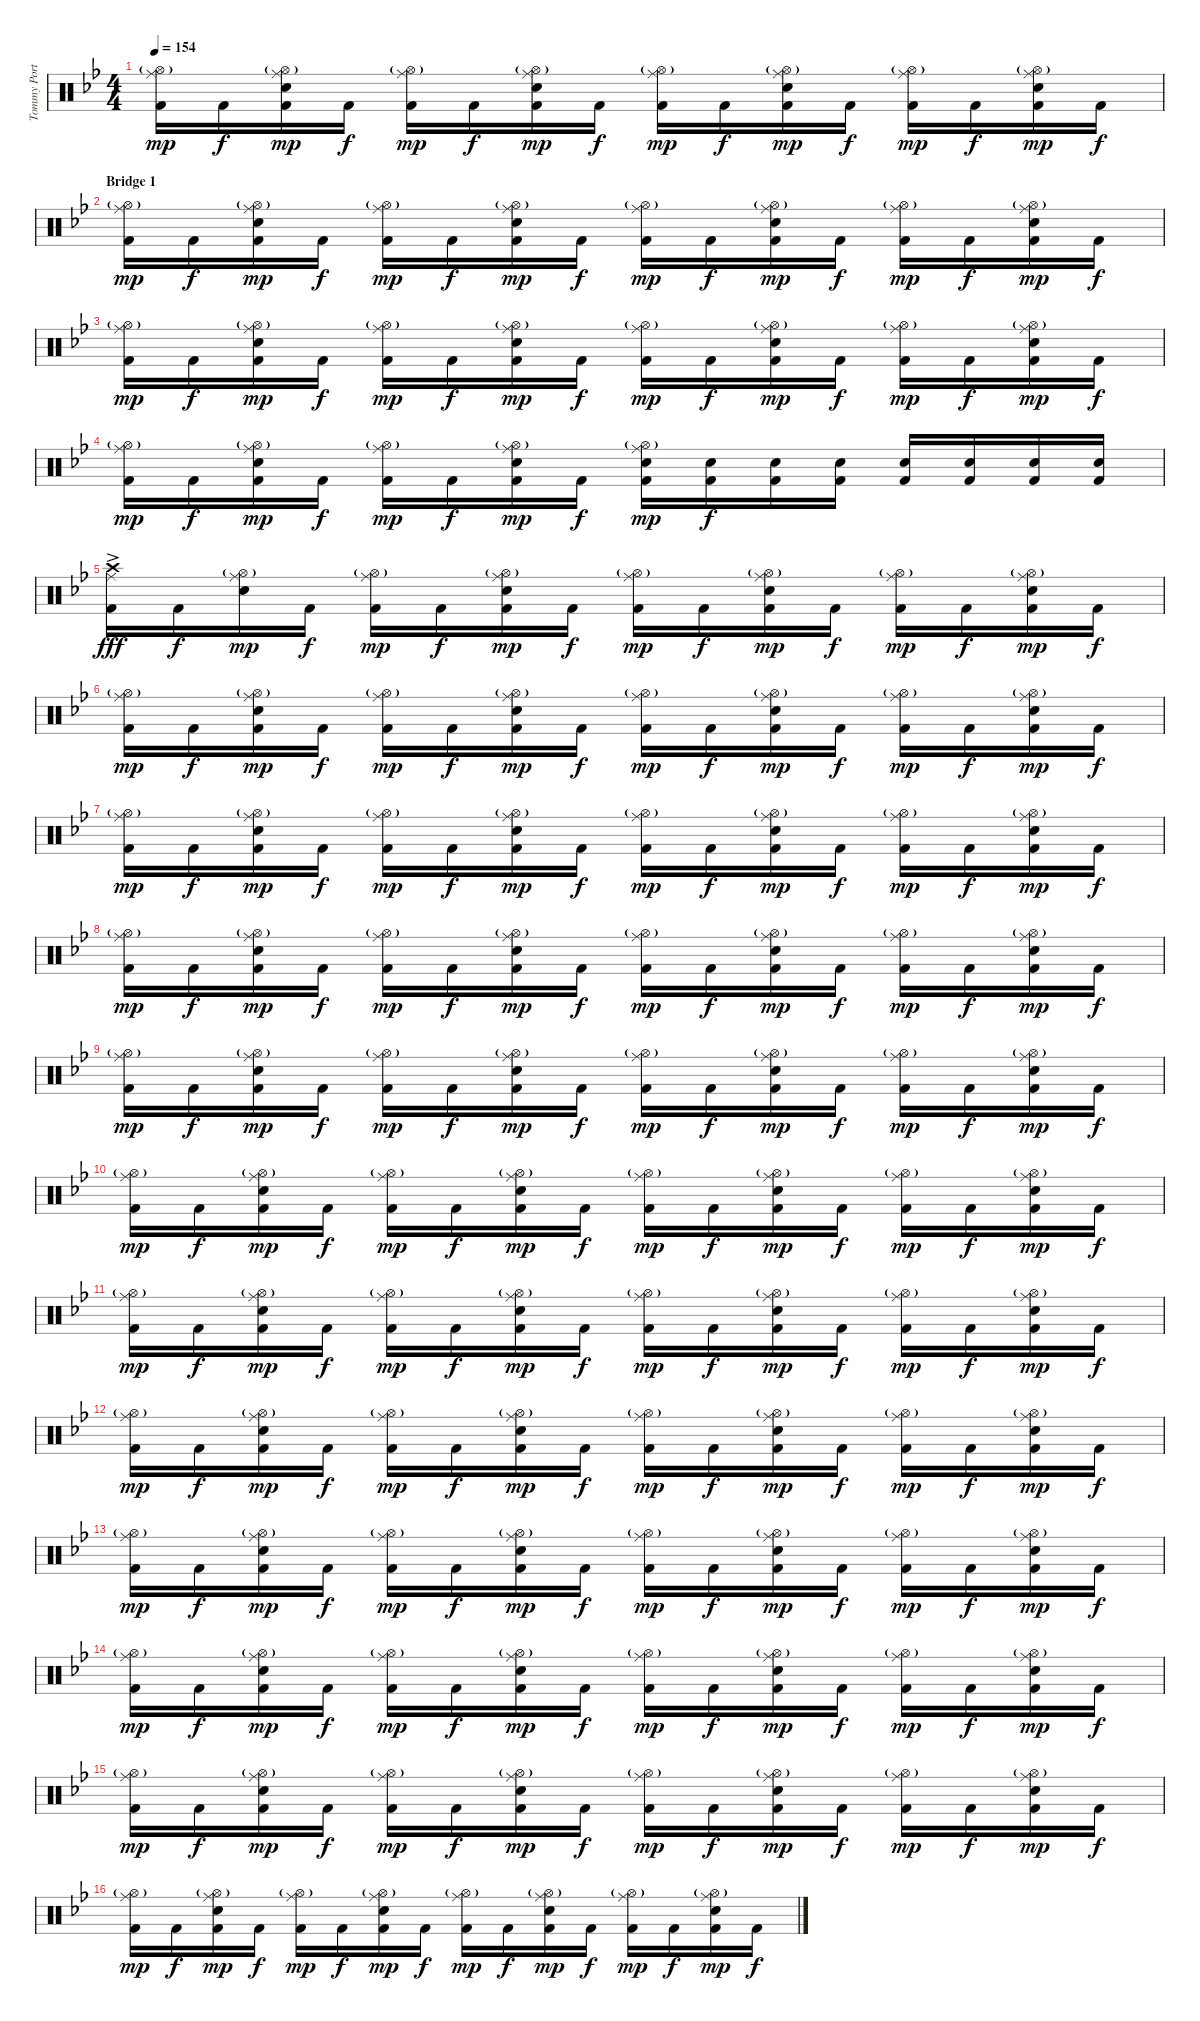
\track ("Tommy Portimo" "Tommy Port") {instrument percussion}
\staff {score}
\articulation defaults
\ts (4 4)
\tempo 154
\clef neutral
\ks gminor
("Hi-Hat (open)"{g} "Ride (middle)" "Kick (hit) 2").16{dy mp} "Kick (hit) 2".16{dy f} ("Hi-Hat (open)"{g} "Ride (middle)" "Electric Snare (hit)" "Kick (hit) 2").16{dy mp} "Kick (hit) 2".16{dy f} ("Hi-Hat (open)"{g} "Ride (middle)" "Kick (hit) 2").16{dy mp} "Kick (hit) 2".16{dy f} ("Hi-Hat (open)"{g} "Ride (middle)" "Electric Snare (hit)" "Kick (hit) 2").16{dy mp} "Kick (hit) 2".16{dy f} ("Hi-Hat (open)"{g} "Ride (middle)" "Kick (hit) 2").16{dy mp} "Kick (hit) 2".16{dy f} ("Hi-Hat (open)"{g} "Ride (middle)" "Electric Snare (hit)" "Kick (hit) 2").16{dy mp} "Kick (hit) 2".16{dy f} ("Hi-Hat (open)"{g} "Ride (middle)" "Kick (hit) 2").16{dy mp} "Kick (hit) 2".16{dy f} ("Hi-Hat (open)"{g} "Ride (middle)" "Electric Snare (hit)" "Kick (hit) 2").16{dy mp} "Kick (hit) 2".16{dy f} |
\section ("" "Bridge 1")
("Hi-Hat (open)"{g} "Ride (middle)" "Kick (hit) 2").16{dy mp} "Kick (hit) 2".16{dy f} ("Hi-Hat (open)"{g} "Ride (middle)" "Electric Snare (hit)" "Kick (hit) 2").16{dy mp} "Kick (hit) 2".16{dy f} ("Hi-Hat (open)"{g} "Ride (middle)" "Kick (hit) 2").16{dy mp} "Kick (hit) 2".16{dy f} ("Hi-Hat (open)"{g} "Ride (middle)" "Electric Snare (hit)" "Kick (hit) 2").16{dy mp} "Kick (hit) 2".16{dy f} ("Hi-Hat (open)"{g} "Ride (middle)" "Kick (hit) 2").16{dy mp} "Kick (hit) 2".16{dy f} ("Hi-Hat (open)"{g} "Ride (middle)" "Electric Snare (hit)" "Kick (hit) 2").16{dy mp} "Kick (hit) 2".16{dy f} ("Hi-Hat (open)"{g} "Ride (middle)" "Kick (hit) 2").16{dy mp} "Kick (hit) 2".16{dy f} ("Hi-Hat (open)"{g} "Ride (middle)" "Electric Snare (hit)" "Kick (hit) 2").16{dy mp} "Kick (hit) 2".16{dy f} |
("Hi-Hat (open)"{g} "Ride (middle)" "Kick (hit) 2").16{dy mp} "Kick (hit) 2".16{dy f} ("Hi-Hat (open)"{g} "Ride (middle)" "Electric Snare (hit)" "Kick (hit) 2").16{dy mp} "Kick (hit) 2".16{dy f} ("Hi-Hat (open)"{g} "Ride (middle)" "Kick (hit) 2").16{dy mp} "Kick (hit) 2".16{dy f} ("Hi-Hat (open)"{g} "Ride (middle)" "Electric Snare (hit)" "Kick (hit) 2").16{dy mp} "Kick (hit) 2".16{dy f} ("Hi-Hat (open)"{g} "Ride (middle)" "Kick (hit) 2").16{dy mp} "Kick (hit) 2".16{dy f} ("Hi-Hat (open)"{g} "Ride (middle)" "Electric Snare (hit)" "Kick (hit) 2").16{dy mp} "Kick (hit) 2".16{dy f} ("Hi-Hat (open)"{g} "Ride (middle)" "Kick (hit) 2").16{dy mp} "Kick (hit) 2".16{dy f} ("Hi-Hat (open)"{g} "Ride (middle)" "Electric Snare (hit)" "Kick (hit) 2").16{dy mp} "Kick (hit) 2".16{dy f} |
("Hi-Hat (open)"{g} "Ride (middle)" "Kick (hit) 2").16{dy mp} "Kick (hit) 2".16{dy f} ("Hi-Hat (open)"{g} "Ride (middle)" "Electric Snare (hit)" "Kick (hit) 2").16{dy mp} "Kick (hit) 2".16{dy f} ("Hi-Hat (open)"{g} "Ride (middle)" "Kick (hit) 2").16{dy mp} "Kick (hit) 2".16{dy f} ("Hi-Hat (open)"{g} "Ride (middle)" "Electric Snare (hit)" "Kick (hit) 2").16{dy mp} "Kick (hit) 2".16{dy f} ("Hi-Hat (open)"{g} "Ride (middle)" "Electric Snare (hit)" "Kick (hit) 2").16{dy mp} ("Electric Snare (hit)" "Kick (hit) 2").16{dy f} ("Electric Snare (hit)" "Kick (hit) 2").16 ("Electric Snare (hit)" "Kick (hit) 2").16 ("Electric Snare (hit)" "Kick (hit) 2").16 ("Electric Snare (hit)" "Kick (hit) 2").16 ("Electric Snare (hit)" "Kick (hit) 2").16 ("Electric Snare (hit)" "Kick (hit) 2").16 |
("Crash high (hit)"{ac} "Ride (middle)" "Kick (hit) 2").16{dy fff} "Kick (hit) 2".16{dy f} ("Hi-Hat (open)"{g} "Ride (middle)" "Electric Snare (hit)").16{dy mp} "Kick (hit) 2".16{dy f} ("Hi-Hat (open)"{g} "Ride (middle)" "Kick (hit) 2").16{dy mp} "Kick (hit) 2".16{dy f} ("Hi-Hat (open)"{g} "Ride (middle)" "Electric Snare (hit)" "Kick (hit) 2").16{dy mp} "Kick (hit) 2".16{dy f} ("Hi-Hat (open)"{g} "Ride (middle)" "Kick (hit) 2").16{dy mp} "Kick (hit) 2".16{dy f} ("Hi-Hat (open)"{g} "Ride (middle)" "Electric Snare (hit)" "Kick (hit) 2").16{dy mp} "Kick (hit) 2".16{dy f} ("Hi-Hat (open)"{g} "Ride (middle)" "Kick (hit) 2").16{dy mp} "Kick (hit) 2".16{dy f} ("Hi-Hat (open)"{g} "Ride (middle)" "Electric Snare (hit)" "Kick (hit) 2").16{dy mp} "Kick (hit) 2".16{dy f} |
("Hi-Hat (open)"{g} "Ride (middle)" "Kick (hit) 2").16{dy mp} "Kick (hit) 2".16{dy f} ("Hi-Hat (open)"{g} "Ride (middle)" "Electric Snare (hit)" "Kick (hit) 2").16{dy mp} "Kick (hit) 2".16{dy f} ("Hi-Hat (open)"{g} "Ride (middle)" "Kick (hit) 2").16{dy mp} "Kick (hit) 2".16{dy f} ("Hi-Hat (open)"{g} "Ride (middle)" "Electric Snare (hit)" "Kick (hit) 2").16{dy mp} "Kick (hit) 2".16{dy f} ("Hi-Hat (open)"{g} "Ride (middle)" "Kick (hit) 2").16{dy mp} "Kick (hit) 2".16{dy f} ("Hi-Hat (open)"{g} "Ride (middle)" "Electric Snare (hit)" "Kick (hit) 2").16{dy mp} "Kick (hit) 2".16{dy f} ("Hi-Hat (open)"{g} "Ride (middle)" "Kick (hit) 2").16{dy mp} "Kick (hit) 2".16{dy f} ("Hi-Hat (open)"{g} "Ride (middle)" "Electric Snare (hit)" "Kick (hit) 2").16{dy mp} "Kick (hit) 2".16{dy f} |
("Hi-Hat (open)"{g} "Ride (middle)" "Kick (hit) 2").16{dy mp} "Kick (hit) 2".16{dy f} ("Hi-Hat (open)"{g} "Ride (middle)" "Electric Snare (hit)" "Kick (hit) 2").16{dy mp} "Kick (hit) 2".16{dy f} ("Hi-Hat (open)"{g} "Ride (middle)" "Kick (hit) 2").16{dy mp} "Kick (hit) 2".16{dy f} ("Hi-Hat (open)"{g} "Ride (middle)" "Electric Snare (hit)" "Kick (hit) 2").16{dy mp} "Kick (hit) 2".16{dy f} ("Hi-Hat (open)"{g} "Ride (middle)" "Kick (hit) 2").16{dy mp} "Kick (hit) 2".16{dy f} ("Hi-Hat (open)"{g} "Ride (middle)" "Electric Snare (hit)" "Kick (hit) 2").16{dy mp} "Kick (hit) 2".16{dy f} ("Hi-Hat (open)"{g} "Ride (middle)" "Kick (hit) 2").16{dy mp} "Kick (hit) 2".16{dy f} ("Hi-Hat (open)"{g} "Ride (middle)" "Electric Snare (hit)" "Kick (hit) 2").16{dy mp} "Kick (hit) 2".16{dy f} |
("Hi-Hat (open)"{g} "Ride (middle)" "Kick (hit) 2").16{dy mp} "Kick (hit) 2".16{dy f} ("Hi-Hat (open)"{g} "Ride (middle)" "Electric Snare (hit)" "Kick (hit) 2").16{dy mp} "Kick (hit) 2".16{dy f} ("Hi-Hat (open)"{g} "Ride (middle)" "Kick (hit) 2").16{dy mp} "Kick (hit) 2".16{dy f} ("Hi-Hat (open)"{g} "Ride (middle)" "Electric Snare (hit)" "Kick (hit) 2").16{dy mp} "Kick (hit) 2".16{dy f} ("Hi-Hat (open)"{g} "Ride (middle)" "Kick (hit) 2").16{dy mp} "Kick (hit) 2".16{dy f} ("Hi-Hat (open)"{g} "Ride (middle)" "Electric Snare (hit)" "Kick (hit) 2").16{dy mp} "Kick (hit) 2".16{dy f} ("Hi-Hat (open)"{g} "Ride (middle)" "Kick (hit) 2").16{dy mp} "Kick (hit) 2".16{dy f} ("Hi-Hat (open)"{g} "Ride (middle)" "Electric Snare (hit)" "Kick (hit) 2").16{dy mp} "Kick (hit) 2".16{dy f} |
("Hi-Hat (open)"{g} "Ride (middle)" "Kick (hit) 2").16{dy mp} "Kick (hit) 2".16{dy f} ("Hi-Hat (open)"{g} "Ride (middle)" "Electric Snare (hit)" "Kick (hit) 2").16{dy mp} "Kick (hit) 2".16{dy f} ("Hi-Hat (open)"{g} "Ride (middle)" "Kick (hit) 2").16{dy mp} "Kick (hit) 2".16{dy f} ("Hi-Hat (open)"{g} "Ride (middle)" "Electric Snare (hit)" "Kick (hit) 2").16{dy mp} "Kick (hit) 2".16{dy f} ("Hi-Hat (open)"{g} "Ride (middle)" "Kick (hit) 2").16{dy mp} "Kick (hit) 2".16{dy f} ("Hi-Hat (open)"{g} "Ride (middle)" "Electric Snare (hit)" "Kick (hit) 2").16{dy mp} "Kick (hit) 2".16{dy f} ("Hi-Hat (open)"{g} "Ride (middle)" "Kick (hit) 2").16{dy mp} "Kick (hit) 2".16{dy f} ("Hi-Hat (open)"{g} "Ride (middle)" "Electric Snare (hit)" "Kick (hit) 2").16{dy mp} "Kick (hit) 2".16{dy f} |
("Hi-Hat (open)"{g} "Ride (middle)" "Kick (hit) 2").16{dy mp} "Kick (hit) 2".16{dy f} ("Hi-Hat (open)"{g} "Ride (middle)" "Electric Snare (hit)" "Kick (hit) 2").16{dy mp} "Kick (hit) 2".16{dy f} ("Hi-Hat (open)"{g} "Ride (middle)" "Kick (hit) 2").16{dy mp} "Kick (hit) 2".16{dy f} ("Hi-Hat (open)"{g} "Ride (middle)" "Electric Snare (hit)" "Kick (hit) 2").16{dy mp} "Kick (hit) 2".16{dy f} ("Hi-Hat (open)"{g} "Ride (middle)" "Kick (hit) 2").16{dy mp} "Kick (hit) 2".16{dy f} ("Hi-Hat (open)"{g} "Ride (middle)" "Electric Snare (hit)" "Kick (hit) 2").16{dy mp} "Kick (hit) 2".16{dy f} ("Hi-Hat (open)"{g} "Ride (middle)" "Kick (hit) 2").16{dy mp} "Kick (hit) 2".16{dy f} ("Hi-Hat (open)"{g} "Ride (middle)" "Electric Snare (hit)" "Kick (hit) 2").16{dy mp} "Kick (hit) 2".16{dy f} |
("Hi-Hat (open)"{g} "Ride (middle)" "Kick (hit) 2").16{dy mp} "Kick (hit) 2".16{dy f} ("Hi-Hat (open)"{g} "Ride (middle)" "Electric Snare (hit)" "Kick (hit) 2").16{dy mp} "Kick (hit) 2".16{dy f} ("Hi-Hat (open)"{g} "Ride (middle)" "Kick (hit) 2").16{dy mp} "Kick (hit) 2".16{dy f} ("Hi-Hat (open)"{g} "Ride (middle)" "Electric Snare (hit)" "Kick (hit) 2").16{dy mp} "Kick (hit) 2".16{dy f} ("Hi-Hat (open)"{g} "Ride (middle)" "Kick (hit) 2").16{dy mp} "Kick (hit) 2".16{dy f} ("Hi-Hat (open)"{g} "Ride (middle)" "Electric Snare (hit)" "Kick (hit) 2").16{dy mp} "Kick (hit) 2".16{dy f} ("Hi-Hat (open)"{g} "Ride (middle)" "Kick (hit) 2").16{dy mp} "Kick (hit) 2".16{dy f} ("Hi-Hat (open)"{g} "Ride (middle)" "Electric Snare (hit)" "Kick (hit) 2").16{dy mp} "Kick (hit) 2".16{dy f} |
("Hi-Hat (open)"{g} "Ride (middle)" "Kick (hit) 2").16{dy mp} "Kick (hit) 2".16{dy f} ("Hi-Hat (open)"{g} "Ride (middle)" "Electric Snare (hit)" "Kick (hit) 2").16{dy mp} "Kick (hit) 2".16{dy f} ("Hi-Hat (open)"{g} "Ride (middle)" "Kick (hit) 2").16{dy mp} "Kick (hit) 2".16{dy f} ("Hi-Hat (open)"{g} "Ride (middle)" "Electric Snare (hit)" "Kick (hit) 2").16{dy mp} "Kick (hit) 2".16{dy f} ("Hi-Hat (open)"{g} "Ride (middle)" "Kick (hit) 2").16{dy mp} "Kick (hit) 2".16{dy f} ("Hi-Hat (open)"{g} "Ride (middle)" "Electric Snare (hit)" "Kick (hit) 2").16{dy mp} "Kick (hit) 2".16{dy f} ("Hi-Hat (open)"{g} "Ride (middle)" "Kick (hit) 2").16{dy mp} "Kick (hit) 2".16{dy f} ("Hi-Hat (open)"{g} "Ride (middle)" "Electric Snare (hit)" "Kick (hit) 2").16{dy mp} "Kick (hit) 2".16{dy f} |
("Hi-Hat (open)"{g} "Ride (middle)" "Kick (hit) 2").16{dy mp} "Kick (hit) 2".16{dy f} ("Hi-Hat (open)"{g} "Ride (middle)" "Electric Snare (hit)" "Kick (hit) 2").16{dy mp} "Kick (hit) 2".16{dy f} ("Hi-Hat (open)"{g} "Ride (middle)" "Kick (hit) 2").16{dy mp} "Kick (hit) 2".16{dy f} ("Hi-Hat (open)"{g} "Ride (middle)" "Electric Snare (hit)" "Kick (hit) 2").16{dy mp} "Kick (hit) 2".16{dy f} ("Hi-Hat (open)"{g} "Ride (middle)" "Kick (hit) 2").16{dy mp} "Kick (hit) 2".16{dy f} ("Hi-Hat (open)"{g} "Ride (middle)" "Electric Snare (hit)" "Kick (hit) 2").16{dy mp} "Kick (hit) 2".16{dy f} ("Hi-Hat (open)"{g} "Ride (middle)" "Kick (hit) 2").16{dy mp} "Kick (hit) 2".16{dy f} ("Hi-Hat (open)"{g} "Ride (middle)" "Electric Snare (hit)" "Kick (hit) 2").16{dy mp} "Kick (hit) 2".16{dy f} |
("Hi-Hat (open)"{g} "Ride (middle)" "Kick (hit) 2").16{dy mp} "Kick (hit) 2".16{dy f} ("Hi-Hat (open)"{g} "Ride (middle)" "Electric Snare (hit)" "Kick (hit) 2").16{dy mp} "Kick (hit) 2".16{dy f} ("Hi-Hat (open)"{g} "Ride (middle)" "Kick (hit) 2").16{dy mp} "Kick (hit) 2".16{dy f} ("Hi-Hat (open)"{g} "Ride (middle)" "Electric Snare (hit)" "Kick (hit) 2").16{dy mp} "Kick (hit) 2".16{dy f} ("Hi-Hat (open)"{g} "Ride (middle)" "Kick (hit) 2").16{dy mp} "Kick (hit) 2".16{dy f} ("Hi-Hat (open)"{g} "Ride (middle)" "Electric Snare (hit)" "Kick (hit) 2").16{dy mp} "Kick (hit) 2".16{dy f} ("Hi-Hat (open)"{g} "Ride (middle)" "Kick (hit) 2").16{dy mp} "Kick (hit) 2".16{dy f} ("Hi-Hat (open)"{g} "Ride (middle)" "Electric Snare (hit)" "Kick (hit) 2").16{dy mp} "Kick (hit) 2".16{dy f} |
("Hi-Hat (open)"{g} "Ride (middle)" "Kick (hit) 2").16{dy mp} "Kick (hit) 2".16{dy f} ("Hi-Hat (open)"{g} "Ride (middle)" "Electric Snare (hit)" "Kick (hit) 2").16{dy mp} "Kick (hit) 2".16{dy f} ("Hi-Hat (open)"{g} "Ride (middle)" "Kick (hit) 2").16{dy mp} "Kick (hit) 2".16{dy f} ("Hi-Hat (open)"{g} "Ride (middle)" "Electric Snare (hit)" "Kick (hit) 2").16{dy mp} "Kick (hit) 2".16{dy f} ("Hi-Hat (open)"{g} "Ride (middle)" "Kick (hit) 2").16{dy mp} "Kick (hit) 2".16{dy f} ("Hi-Hat (open)"{g} "Ride (middle)" "Electric Snare (hit)" "Kick (hit) 2").16{dy mp} "Kick (hit) 2".16{dy f} ("Hi-Hat (open)"{g} "Ride (middle)" "Kick (hit) 2").16{dy mp} "Kick (hit) 2".16{dy f} ("Hi-Hat (open)"{g} "Ride (middle)" "Electric Snare (hit)" "Kick (hit) 2").16{dy mp} "Kick (hit) 2".16{dy f} |
("Hi-Hat (open)"{g} "Ride (middle)" "Kick (hit) 2").16{dy mp} "Kick (hit) 2".16{dy f} ("Hi-Hat (open)"{g} "Ride (middle)" "Electric Snare (hit)" "Kick (hit) 2").16{dy mp} "Kick (hit) 2".16{dy f} ("Hi-Hat (open)"{g} "Ride (middle)" "Kick (hit) 2").16{dy mp} "Kick (hit) 2".16{dy f} ("Hi-Hat (open)"{g} "Ride (middle)" "Electric Snare (hit)" "Kick (hit) 2").16{dy mp} "Kick (hit) 2".16{dy f} ("Hi-Hat (open)"{g} "Ride (middle)" "Kick (hit) 2").16{dy mp} "Kick (hit) 2".16{dy f} ("Hi-Hat (open)"{g} "Ride (middle)" "Electric Snare (hit)" "Kick (hit) 2").16{dy mp} "Kick (hit) 2".16{dy f} ("Hi-Hat (open)"{g} "Ride (middle)" "Kick (hit) 2").16{dy mp} "Kick (hit) 2".16{dy f} ("Hi-Hat (open)"{g} "Ride (middle)" "Electric Snare (hit)" "Kick (hit) 2").16{dy mp} "Kick (hit) 2".16{dy f}
